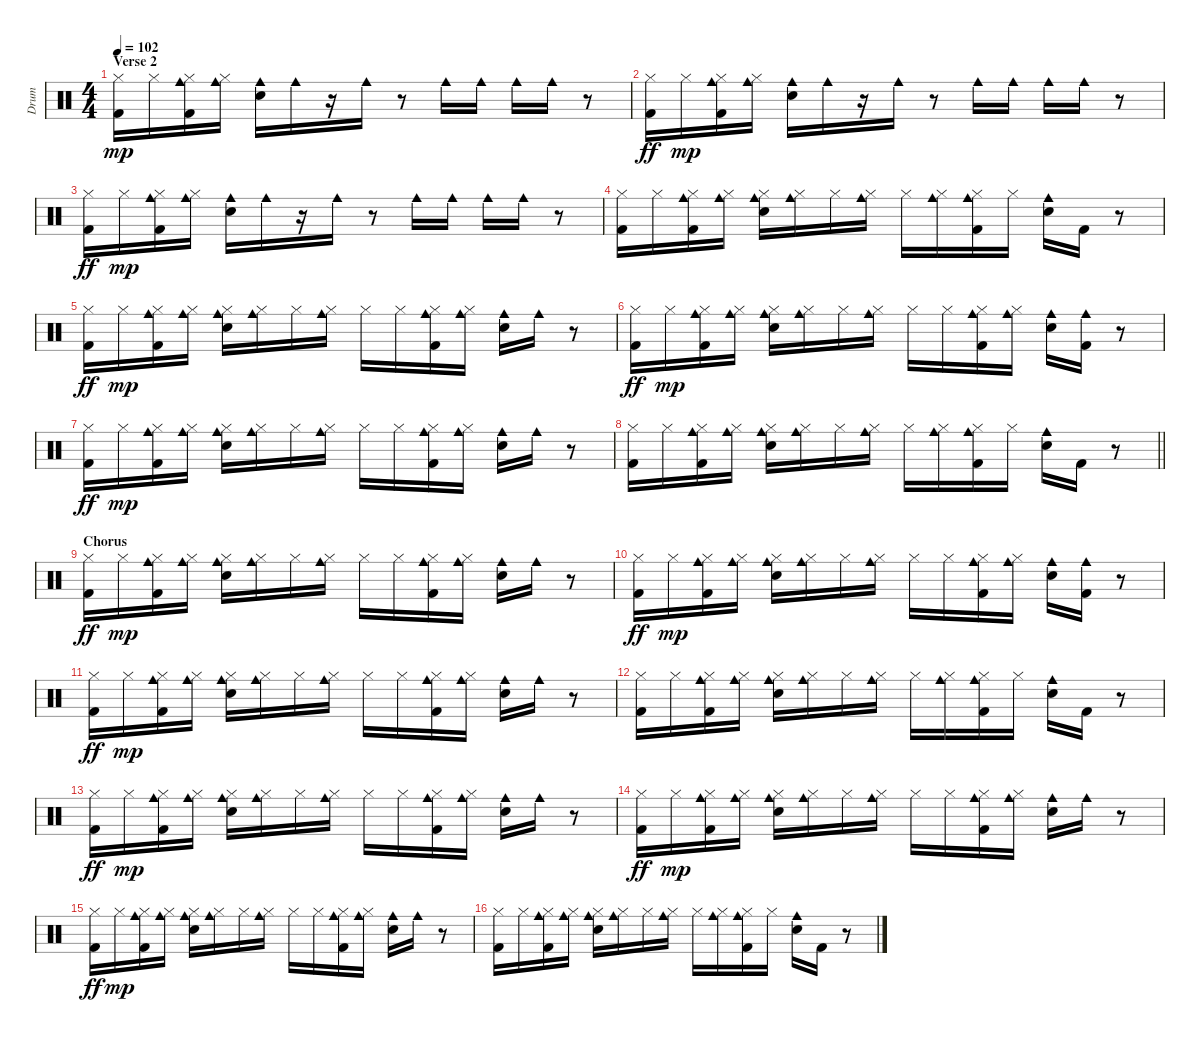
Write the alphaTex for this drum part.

\track ("Drum" "Drum") {instrument percussion}
\staff {score}
\articulation defaults
\ts (4 4)
\section ("" "Verse 2")
\tempo 102
\clef neutral
\ks c
("Kick (hit) 2" "Hi-Hat (closed)").16{dy mp volume 12} "Hi-Hat (closed)".16 ("Cowbell medium (hit)" "Kick (hit) 2" "Hi-Hat (closed)").16 ("Cowbell medium (hit)" "Hi-Hat (closed)").16 ("Cowbell medium (hit)" "Electric Snare (hit)").16 "Cowbell medium (hit)".16 r.16 "Cowbell medium (hit)".16 r.8 "Cowbell medium (hit)".16 "Cowbell medium (hit)".16 "Cowbell medium (hit)".16 "Cowbell medium (hit)".16 r.8 |
("Hi-Hat (closed)" "Kick (hit) 2").16{dy ff volume 12} "Hi-Hat (closed)".16{dy mp} ("Hi-Hat (closed)" "Kick (hit) 2" "Cowbell medium (hit)").16 ("Hi-Hat (closed)" "Cowbell medium (hit)").16 ("Electric Snare (hit)" "Cowbell medium (hit)").16 "Cowbell medium (hit)".16 r.16 "Cowbell medium (hit)".16 r.8 "Cowbell medium (hit)".16 "Cowbell medium (hit)".16 "Cowbell medium (hit)".16 "Cowbell medium (hit)".16 r.8 |
("Hi-Hat (closed)" "Kick (hit) 2").16{dy ff volume 12} "Hi-Hat (closed)".16{dy mp} ("Hi-Hat (closed)" "Kick (hit) 2" "Cowbell medium (hit)").16 ("Hi-Hat (closed)" "Cowbell medium (hit)").16 ("Electric Snare (hit)" "Cowbell medium (hit)").16 "Cowbell medium (hit)".16 r.16 "Cowbell medium (hit)".16 r.8 "Cowbell medium (hit)".16 "Cowbell medium (hit)".16 "Cowbell medium (hit)".16 "Cowbell medium (hit)".16 r.8 |
("Kick (hit) 2" "Hi-Hat (closed)").16{volume 12} "Hi-Hat (closed)".16 ("Kick (hit) 2" "Hi-Hat (closed)" "Cowbell medium (hit)").16 ("Hi-Hat (closed)" "Cowbell medium (hit)").16 ("Electric Snare (hit)" "Hi-Hat (closed)" "Cowbell medium (hit)").16 ("Hi-Hat (closed)" "Cowbell medium (hit)").16 "Hi-Hat (closed)".16 ("Hi-Hat (closed)" "Cowbell medium (hit)").16 "Hi-Hat (closed)".16 ("Hi-Hat (closed)" "Cowbell medium (hit)").16 ("Hi-Hat (closed)" "Kick (hit) 2" "Cowbell medium (hit)").16 "Hi-Hat (closed)".16 ("Electric Snare (hit)" "Cowbell medium (hit)").16 "Kick (hit) 2".16 r.8 |
("Hi-Hat (closed)" "Kick (hit) 2").16{dy ff volume 12} "Hi-Hat (closed)".16{dy mp} ("Hi-Hat (closed)" "Kick (hit) 2" "Cowbell medium (hit)").16 ("Hi-Hat (closed)" "Cowbell medium (hit)").16 ("Electric Snare (hit)" "Hi-Hat (closed)" "Cowbell medium (hit)").16 ("Hi-Hat (closed)" "Cowbell medium (hit)").16 "Hi-Hat (closed)".16 ("Hi-Hat (closed)" "Cowbell medium (hit)").16 "Hi-Hat (closed)".16 "Hi-Hat (closed)".16 ("Hi-Hat (closed)" "Kick (hit) 2" "Cowbell medium (hit)").16 ("Hi-Hat (closed)" "Cowbell medium (hit)").16 ("Electric Snare (hit)" "Cowbell medium (hit)").16 "Cowbell medium (hit)".16 r.8 |
("Hi-Hat (closed)" "Kick (hit) 2").16{dy ff volume 12} "Hi-Hat (closed)".16{dy mp} ("Hi-Hat (closed)" "Kick (hit) 2" "Cowbell medium (hit)").16 ("Hi-Hat (closed)" "Cowbell medium (hit)").16 ("Electric Snare (hit)" "Hi-Hat (closed)" "Cowbell medium (hit)").16 ("Hi-Hat (closed)" "Cowbell medium (hit)").16 "Hi-Hat (closed)".16 ("Hi-Hat (closed)" "Cowbell medium (hit)").16 "Hi-Hat (closed)".16 "Hi-Hat (closed)".16 ("Hi-Hat (closed)" "Kick (hit) 2" "Cowbell medium (hit)").16 ("Hi-Hat (closed)" "Cowbell medium (hit)").16 ("Electric Snare (hit)" "Cowbell medium (hit)").16 ("Cowbell medium (hit)" "Kick (hit) 2").16 r.8 |
("Hi-Hat (closed)" "Kick (hit) 2").16{dy ff volume 12} "Hi-Hat (closed)".16{dy mp} ("Hi-Hat (closed)" "Kick (hit) 2" "Cowbell medium (hit)").16 ("Hi-Hat (closed)" "Cowbell medium (hit)").16 ("Electric Snare (hit)" "Hi-Hat (closed)" "Cowbell medium (hit)").16 ("Hi-Hat (closed)" "Cowbell medium (hit)").16 "Hi-Hat (closed)".16 ("Hi-Hat (closed)" "Cowbell medium (hit)").16 "Hi-Hat (closed)".16 "Hi-Hat (closed)".16 ("Hi-Hat (closed)" "Kick (hit) 2" "Cowbell medium (hit)").16 ("Hi-Hat (closed)" "Cowbell medium (hit)").16 ("Electric Snare (hit)" "Cowbell medium (hit)").16 "Cowbell medium (hit)".16 r.8 |
\barLineRight lightlight
("Kick (hit) 2" "Hi-Hat (closed)").16{volume 12} "Hi-Hat (closed)".16 ("Kick (hit) 2" "Hi-Hat (closed)" "Cowbell medium (hit)").16 ("Hi-Hat (closed)" "Cowbell medium (hit)").16 ("Electric Snare (hit)" "Hi-Hat (closed)" "Cowbell medium (hit)").16 ("Hi-Hat (closed)" "Cowbell medium (hit)").16 "Hi-Hat (closed)".16 ("Hi-Hat (closed)" "Cowbell medium (hit)").16 "Hi-Hat (closed)".16 ("Hi-Hat (closed)" "Cowbell medium (hit)").16 ("Hi-Hat (closed)" "Kick (hit) 2" "Cowbell medium (hit)").16 "Hi-Hat (closed)".16 ("Electric Snare (hit)" "Cowbell medium (hit)").16 "Kick (hit) 2".16 r.8 |
\section ("" "Chorus")
("Hi-Hat (closed)" "Kick (hit) 2").16{dy ff volume 12} "Hi-Hat (closed)".16{dy mp} ("Hi-Hat (closed)" "Kick (hit) 2" "Cowbell medium (hit)").16 ("Hi-Hat (closed)" "Cowbell medium (hit)").16 ("Electric Snare (hit)" "Hi-Hat (closed)" "Cowbell medium (hit)").16 ("Hi-Hat (closed)" "Cowbell medium (hit)").16 "Hi-Hat (closed)".16 ("Hi-Hat (closed)" "Cowbell medium (hit)").16 "Hi-Hat (closed)".16 "Hi-Hat (closed)".16 ("Hi-Hat (closed)" "Kick (hit) 2" "Cowbell medium (hit)").16 ("Hi-Hat (closed)" "Cowbell medium (hit)").16 ("Electric Snare (hit)" "Cowbell medium (hit)").16 "Cowbell medium (hit)".16 r.8 |
("Hi-Hat (closed)" "Kick (hit) 2").16{dy ff volume 12} "Hi-Hat (closed)".16{dy mp} ("Hi-Hat (closed)" "Kick (hit) 2" "Cowbell medium (hit)").16 ("Hi-Hat (closed)" "Cowbell medium (hit)").16 ("Electric Snare (hit)" "Hi-Hat (closed)" "Cowbell medium (hit)").16 ("Hi-Hat (closed)" "Cowbell medium (hit)").16 "Hi-Hat (closed)".16 ("Hi-Hat (closed)" "Cowbell medium (hit)").16 "Hi-Hat (closed)".16 "Hi-Hat (closed)".16 ("Hi-Hat (closed)" "Kick (hit) 2" "Cowbell medium (hit)").16 ("Hi-Hat (closed)" "Cowbell medium (hit)").16 ("Electric Snare (hit)" "Cowbell medium (hit)").16 ("Cowbell medium (hit)" "Kick (hit) 2").16 r.8 |
("Hi-Hat (closed)" "Kick (hit) 2").16{dy ff volume 12} "Hi-Hat (closed)".16{dy mp} ("Hi-Hat (closed)" "Kick (hit) 2" "Cowbell medium (hit)").16 ("Hi-Hat (closed)" "Cowbell medium (hit)").16 ("Electric Snare (hit)" "Hi-Hat (closed)" "Cowbell medium (hit)").16 ("Hi-Hat (closed)" "Cowbell medium (hit)").16 "Hi-Hat (closed)".16 ("Hi-Hat (closed)" "Cowbell medium (hit)").16 "Hi-Hat (closed)".16 "Hi-Hat (closed)".16 ("Hi-Hat (closed)" "Kick (hit) 2" "Cowbell medium (hit)").16 ("Hi-Hat (closed)" "Cowbell medium (hit)").16 ("Electric Snare (hit)" "Cowbell medium (hit)").16 "Cowbell medium (hit)".16 r.8 |
("Kick (hit) 2" "Hi-Hat (closed)").16{volume 12} "Hi-Hat (closed)".16 ("Kick (hit) 2" "Hi-Hat (closed)" "Cowbell medium (hit)").16 ("Hi-Hat (closed)" "Cowbell medium (hit)").16 ("Electric Snare (hit)" "Hi-Hat (closed)" "Cowbell medium (hit)").16 ("Hi-Hat (closed)" "Cowbell medium (hit)").16 "Hi-Hat (closed)".16 ("Hi-Hat (closed)" "Cowbell medium (hit)").16 "Hi-Hat (closed)".16 ("Hi-Hat (closed)" "Cowbell medium (hit)").16 ("Hi-Hat (closed)" "Kick (hit) 2" "Cowbell medium (hit)").16 "Hi-Hat (closed)".16 ("Electric Snare (hit)" "Cowbell medium (hit)").16 "Kick (hit) 2".16 r.8 |
("Hi-Hat (closed)" "Kick (hit) 2").16{dy ff volume 12} "Hi-Hat (closed)".16{dy mp} ("Hi-Hat (closed)" "Kick (hit) 2" "Cowbell medium (hit)").16 ("Hi-Hat (closed)" "Cowbell medium (hit)").16 ("Electric Snare (hit)" "Hi-Hat (closed)" "Cowbell medium (hit)").16 ("Hi-Hat (closed)" "Cowbell medium (hit)").16 "Hi-Hat (closed)".16 ("Hi-Hat (closed)" "Cowbell medium (hit)").16 "Hi-Hat (closed)".16 "Hi-Hat (closed)".16 ("Hi-Hat (closed)" "Kick (hit) 2" "Cowbell medium (hit)").16 ("Hi-Hat (closed)" "Cowbell medium (hit)").16 ("Electric Snare (hit)" "Cowbell medium (hit)").16 "Cowbell medium (hit)".16 r.8 |
("Hi-Hat (closed)" "Kick (hit) 2").16{dy ff volume 12} "Hi-Hat (closed)".16{dy mp} ("Hi-Hat (closed)" "Kick (hit) 2" "Cowbell medium (hit)").16 ("Hi-Hat (closed)" "Cowbell medium (hit)").16 ("Electric Snare (hit)" "Hi-Hat (closed)" "Cowbell medium (hit)").16 ("Hi-Hat (closed)" "Cowbell medium (hit)").16 "Hi-Hat (closed)".16 ("Hi-Hat (closed)" "Cowbell medium (hit)").16 "Hi-Hat (closed)".16 "Hi-Hat (closed)".16 ("Hi-Hat (closed)" "Kick (hit) 2" "Cowbell medium (hit)").16 ("Hi-Hat (closed)" "Cowbell medium (hit)").16 ("Electric Snare (hit)" "Cowbell medium (hit)").16 "Cowbell medium (hit)".16 r.8 |
("Hi-Hat (closed)" "Kick (hit) 2").16{dy ff volume 12} "Hi-Hat (closed)".16{dy mp} ("Hi-Hat (closed)" "Kick (hit) 2" "Cowbell medium (hit)").16 ("Hi-Hat (closed)" "Cowbell medium (hit)").16 ("Electric Snare (hit)" "Hi-Hat (closed)" "Cowbell medium (hit)").16 ("Hi-Hat (closed)" "Cowbell medium (hit)").16 "Hi-Hat (closed)".16 ("Hi-Hat (closed)" "Cowbell medium (hit)").16 "Hi-Hat (closed)".16 "Hi-Hat (closed)".16 ("Hi-Hat (closed)" "Kick (hit) 2" "Cowbell medium (hit)").16 ("Hi-Hat (closed)" "Cowbell medium (hit)").16 ("Electric Snare (hit)" "Cowbell medium (hit)").16 "Cowbell medium (hit)".16 r.8 |
("Kick (hit) 2" "Hi-Hat (closed)").16{volume 12} "Hi-Hat (closed)".16 ("Kick (hit) 2" "Hi-Hat (closed)" "Cowbell medium (hit)").16 ("Hi-Hat (closed)" "Cowbell medium (hit)").16 ("Electric Snare (hit)" "Hi-Hat (closed)" "Cowbell medium (hit)").16 ("Hi-Hat (closed)" "Cowbell medium (hit)").16 "Hi-Hat (closed)".16 ("Hi-Hat (closed)" "Cowbell medium (hit)").16 "Hi-Hat (closed)".16 ("Hi-Hat (closed)" "Cowbell medium (hit)").16 ("Hi-Hat (closed)" "Kick (hit) 2" "Cowbell medium (hit)").16 "Hi-Hat (closed)".16 ("Electric Snare (hit)" "Cowbell medium (hit)").16 "Kick (hit) 2".16 r.8
